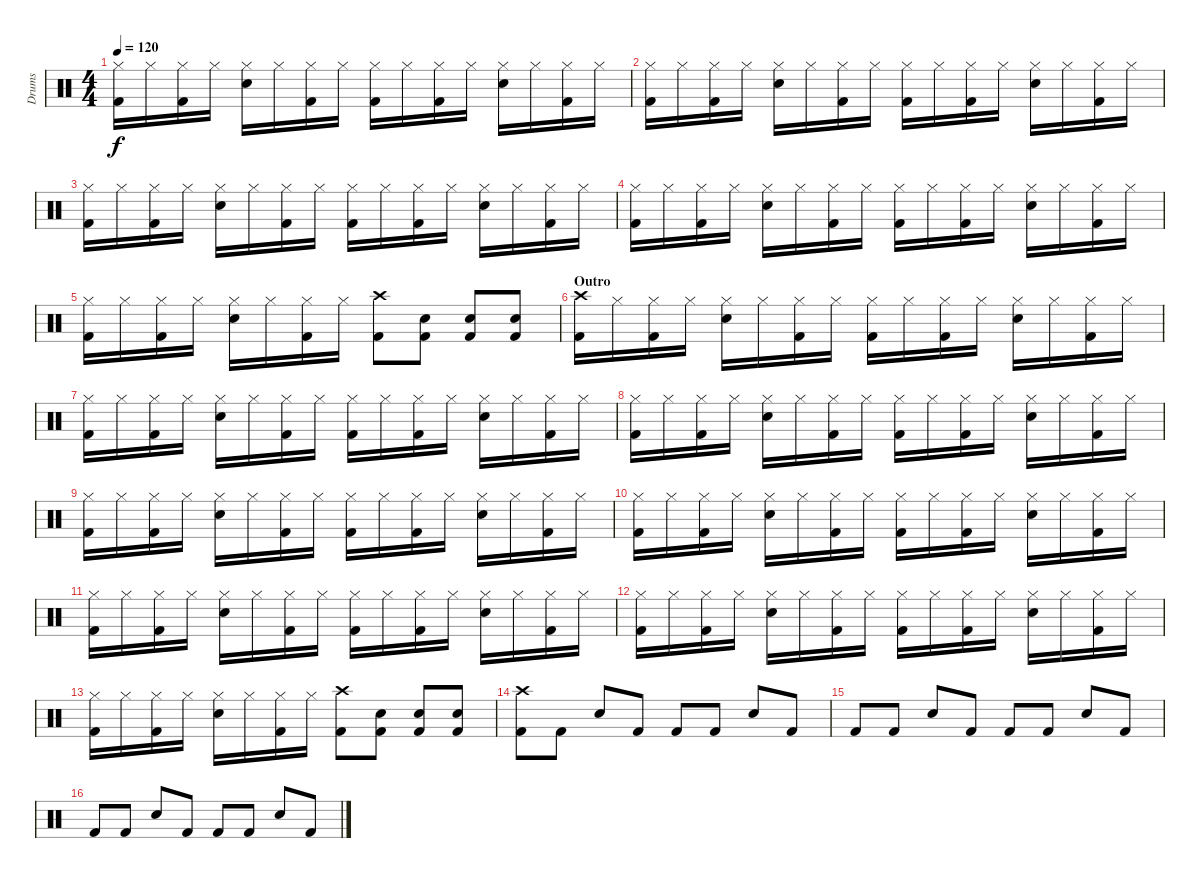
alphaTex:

\track ("Drums" "Drums") {instrument percussion}
\staff {score}
\articulation defaults
\ts (4 4)
\tempo 120
\clef neutral
\ks c
("Hi-Hat (closed)" "Kick (hit) 2").16{dy f} "Hi-Hat (closed)".16 ("Hi-Hat (closed)" "Kick (hit) 2").16 "Hi-Hat (closed)".16 ("Hi-Hat (closed)" "Snare (hit) 2").16 "Hi-Hat (closed)".16 ("Hi-Hat (closed)" "Kick (hit) 2").16 "Hi-Hat (closed)".16 ("Hi-Hat (closed)" "Kick (hit) 2").16 "Hi-Hat (closed)".16 ("Hi-Hat (closed)" "Kick (hit) 2").16 "Hi-Hat (closed)".16 ("Hi-Hat (closed)" "Snare (hit) 2").16 "Hi-Hat (closed)".16 ("Hi-Hat (closed)" "Kick (hit) 2").16 "Hi-Hat (closed)".16 |
("Hi-Hat (closed)" "Kick (hit) 2").16 "Hi-Hat (closed)".16 ("Hi-Hat (closed)" "Kick (hit) 2").16 "Hi-Hat (closed)".16 ("Hi-Hat (closed)" "Snare (hit) 2").16 "Hi-Hat (closed)".16 ("Hi-Hat (closed)" "Kick (hit) 2").16 "Hi-Hat (closed)".16 ("Hi-Hat (closed)" "Kick (hit) 2").16 "Hi-Hat (closed)".16 ("Hi-Hat (closed)" "Kick (hit) 2").16 "Hi-Hat (closed)".16 ("Hi-Hat (closed)" "Snare (hit) 2").16 "Hi-Hat (closed)".16 ("Hi-Hat (closed)" "Kick (hit) 2").16 "Hi-Hat (closed)".16 |
("Hi-Hat (closed)" "Kick (hit) 2").16 "Hi-Hat (closed)".16 ("Hi-Hat (closed)" "Kick (hit) 2").16 "Hi-Hat (closed)".16 ("Hi-Hat (closed)" "Snare (hit) 2").16 "Hi-Hat (closed)".16 ("Hi-Hat (closed)" "Kick (hit) 2").16 "Hi-Hat (closed)".16 ("Hi-Hat (closed)" "Kick (hit) 2").16 "Hi-Hat (closed)".16 ("Hi-Hat (closed)" "Kick (hit) 2").16 "Hi-Hat (closed)".16 ("Hi-Hat (closed)" "Snare (hit) 2").16 "Hi-Hat (closed)".16 ("Hi-Hat (closed)" "Kick (hit) 2").16 "Hi-Hat (closed)".16 |
("Hi-Hat (closed)" "Kick (hit) 2").16 "Hi-Hat (closed)".16 ("Hi-Hat (closed)" "Kick (hit) 2").16 "Hi-Hat (closed)".16 ("Hi-Hat (closed)" "Snare (hit) 2").16 "Hi-Hat (closed)".16 ("Hi-Hat (closed)" "Kick (hit) 2").16 "Hi-Hat (closed)".16 ("Hi-Hat (closed)" "Kick (hit) 2").16 "Hi-Hat (closed)".16 ("Hi-Hat (closed)" "Kick (hit) 2").16 "Hi-Hat (closed)".16 ("Hi-Hat (closed)" "Snare (hit) 2").16 "Hi-Hat (closed)".16 ("Hi-Hat (closed)" "Kick (hit) 2").16 "Hi-Hat (closed)".16 |
("Hi-Hat (closed)" "Kick (hit) 2").16 "Hi-Hat (closed)".16 ("Hi-Hat (closed)" "Kick (hit) 2").16 "Hi-Hat (closed)".16 ("Hi-Hat (closed)" "Snare (hit) 2").16 "Hi-Hat (closed)".16 ("Hi-Hat (closed)" "Kick (hit) 2").16 "Hi-Hat (closed)".16 ("Crash high (hit)" "Kick (hit) 2").8 ("Snare (hit) 2" "Kick (hit) 2").8 ("Snare (hit) 2" "Kick (hit) 2").8 ("Snare (hit) 2" "Kick (hit) 2").8 |
\section ("" "Outro")
("Crash high (hit)" "Kick (hit) 2").16 "Hi-Hat (closed)".16 ("Hi-Hat (closed)" "Kick (hit) 2").16 "Hi-Hat (closed)".16 ("Hi-Hat (closed)" "Snare (hit) 2").16 "Hi-Hat (closed)".16 ("Hi-Hat (closed)" "Kick (hit) 2").16 "Hi-Hat (closed)".16 ("Hi-Hat (closed)" "Kick (hit) 2").16 "Hi-Hat (closed)".16 ("Hi-Hat (closed)" "Kick (hit) 2").16 "Hi-Hat (closed)".16 ("Hi-Hat (closed)" "Snare (hit) 2").16 "Hi-Hat (closed)".16 ("Hi-Hat (closed)" "Kick (hit) 2").16 "Hi-Hat (closed)".16 |
("Hi-Hat (closed)" "Kick (hit) 2").16 "Hi-Hat (closed)".16 ("Hi-Hat (closed)" "Kick (hit) 2").16 "Hi-Hat (closed)".16 ("Hi-Hat (closed)" "Snare (hit) 2").16 "Hi-Hat (closed)".16 ("Hi-Hat (closed)" "Kick (hit) 2").16 "Hi-Hat (closed)".16 ("Hi-Hat (closed)" "Kick (hit) 2").16 "Hi-Hat (closed)".16 ("Hi-Hat (closed)" "Kick (hit) 2").16 "Hi-Hat (closed)".16 ("Hi-Hat (closed)" "Snare (hit) 2").16 "Hi-Hat (closed)".16 ("Hi-Hat (closed)" "Kick (hit) 2").16 "Hi-Hat (closed)".16 |
("Hi-Hat (closed)" "Kick (hit) 2").16 "Hi-Hat (closed)".16 ("Hi-Hat (closed)" "Kick (hit) 2").16 "Hi-Hat (closed)".16 ("Hi-Hat (closed)" "Snare (hit) 2").16 "Hi-Hat (closed)".16 ("Hi-Hat (closed)" "Kick (hit) 2").16 "Hi-Hat (closed)".16 ("Hi-Hat (closed)" "Kick (hit) 2").16 "Hi-Hat (closed)".16 ("Hi-Hat (closed)" "Kick (hit) 2").16 "Hi-Hat (closed)".16 ("Hi-Hat (closed)" "Snare (hit) 2").16 "Hi-Hat (closed)".16 ("Hi-Hat (closed)" "Kick (hit) 2").16 "Hi-Hat (closed)".16 |
("Hi-Hat (closed)" "Kick (hit) 2").16 "Hi-Hat (closed)".16 ("Hi-Hat (closed)" "Kick (hit) 2").16 "Hi-Hat (closed)".16 ("Hi-Hat (closed)" "Snare (hit) 2").16 "Hi-Hat (closed)".16 ("Hi-Hat (closed)" "Kick (hit) 2").16 "Hi-Hat (closed)".16 ("Hi-Hat (closed)" "Kick (hit) 2").16 "Hi-Hat (closed)".16 ("Hi-Hat (closed)" "Kick (hit) 2").16 "Hi-Hat (closed)".16 ("Hi-Hat (closed)" "Snare (hit) 2").16 "Hi-Hat (closed)".16 ("Hi-Hat (closed)" "Kick (hit) 2").16 "Hi-Hat (closed)".16 |
("Hi-Hat (closed)" "Kick (hit) 2").16 "Hi-Hat (closed)".16 ("Hi-Hat (closed)" "Kick (hit) 2").16 "Hi-Hat (closed)".16 ("Hi-Hat (closed)" "Snare (hit) 2").16 "Hi-Hat (closed)".16 ("Hi-Hat (closed)" "Kick (hit) 2").16 "Hi-Hat (closed)".16 ("Hi-Hat (closed)" "Kick (hit) 2").16 "Hi-Hat (closed)".16 ("Hi-Hat (closed)" "Kick (hit) 2").16 "Hi-Hat (closed)".16 ("Hi-Hat (closed)" "Snare (hit) 2").16 "Hi-Hat (closed)".16 ("Hi-Hat (closed)" "Kick (hit) 2").16 "Hi-Hat (closed)".16 |
("Hi-Hat (closed)" "Kick (hit) 2").16 "Hi-Hat (closed)".16 ("Hi-Hat (closed)" "Kick (hit) 2").16 "Hi-Hat (closed)".16 ("Hi-Hat (closed)" "Snare (hit) 2").16 "Hi-Hat (closed)".16 ("Hi-Hat (closed)" "Kick (hit) 2").16 "Hi-Hat (closed)".16 ("Hi-Hat (closed)" "Kick (hit) 2").16 "Hi-Hat (closed)".16 ("Hi-Hat (closed)" "Kick (hit) 2").16 "Hi-Hat (closed)".16 ("Hi-Hat (closed)" "Snare (hit) 2").16 "Hi-Hat (closed)".16 ("Hi-Hat (closed)" "Kick (hit) 2").16 "Hi-Hat (closed)".16 |
("Hi-Hat (closed)" "Kick (hit) 2").16 "Hi-Hat (closed)".16 ("Hi-Hat (closed)" "Kick (hit) 2").16 "Hi-Hat (closed)".16 ("Hi-Hat (closed)" "Snare (hit) 2").16 "Hi-Hat (closed)".16 ("Hi-Hat (closed)" "Kick (hit) 2").16 "Hi-Hat (closed)".16 ("Hi-Hat (closed)" "Kick (hit) 2").16 "Hi-Hat (closed)".16 ("Hi-Hat (closed)" "Kick (hit) 2").16 "Hi-Hat (closed)".16 ("Hi-Hat (closed)" "Snare (hit) 2").16 "Hi-Hat (closed)".16 ("Hi-Hat (closed)" "Kick (hit) 2").16 "Hi-Hat (closed)".16 |
("Hi-Hat (closed)" "Kick (hit) 2").16 "Hi-Hat (closed)".16 ("Hi-Hat (closed)" "Kick (hit) 2").16 "Hi-Hat (closed)".16 ("Hi-Hat (closed)" "Snare (hit) 2").16 "Hi-Hat (closed)".16 ("Hi-Hat (closed)" "Kick (hit) 2").16 "Hi-Hat (closed)".16 ("Crash high (hit)" "Kick (hit) 2").8 ("Snare (hit) 2" "Kick (hit) 2").8 ("Snare (hit) 2" "Kick (hit) 2").8 ("Snare (hit) 2" "Kick (hit) 2").8 |
("Crash high (hit)" "Kick (hit) 2").8 "Kick (hit) 2".8 "Snare (hit) 2".8 "Kick (hit) 2".8 "Kick (hit) 2".8 "Kick (hit) 2".8 "Snare (hit) 2".8 "Kick (hit) 2".8 |
"Kick (hit) 2".8 "Kick (hit) 2".8 "Snare (hit) 2".8 "Kick (hit) 2".8 "Kick (hit) 2".8 "Kick (hit) 2".8 "Snare (hit) 2".8 "Kick (hit) 2".8 |
"Kick (hit) 2".8 "Kick (hit) 2".8 "Snare (hit) 2".8 "Kick (hit) 2".8 "Kick (hit) 2".8 "Kick (hit) 2".8 "Snare (hit) 2".8 "Kick (hit) 2".8
